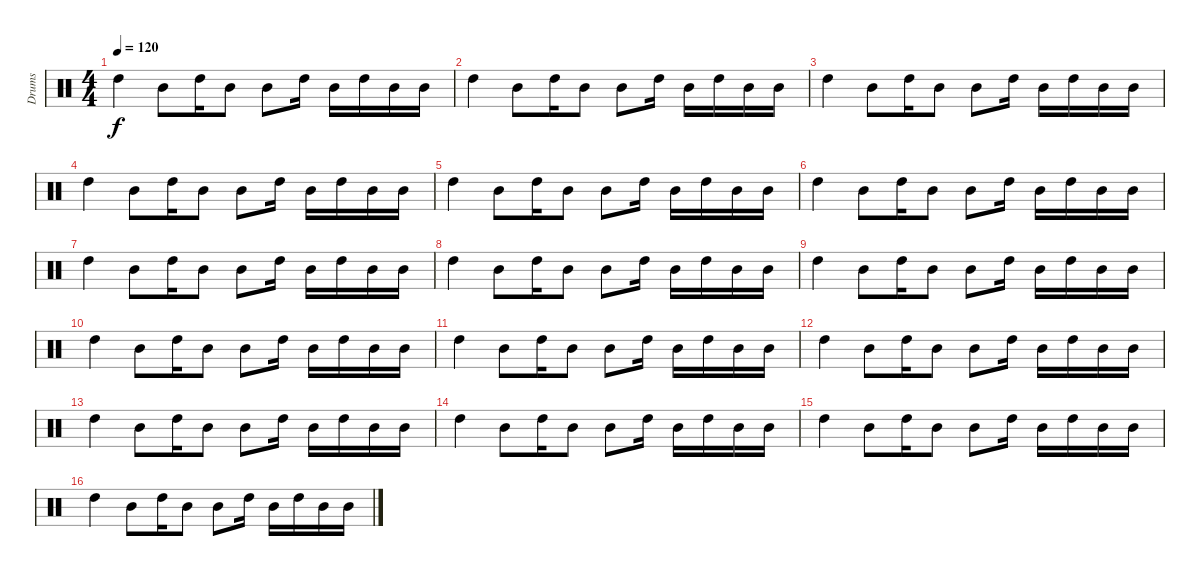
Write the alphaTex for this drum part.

\track ("Drums" "Drums") {instrument percussion}
\staff {score}
\articulation defaults
\ts (4 4)
\tempo 120
\clef neutral
\ks c "High Tom (hit)".4{dy f} "Mid Tom (hit)".8 "High Tom (hit)".16 "Mid Tom (hit)".8 "Mid Tom (hit)".8 "High Tom (hit)".16 "Mid Tom (hit)".16 "High Tom (hit)".16 "Mid Tom (hit)".16 "Mid Tom (hit)".16
|
"High Tom (hit)".4 "Mid Tom (hit)".8 "High Tom (hit)".16 "Mid Tom (hit)".8 "Mid Tom (hit)".8 "High Tom (hit)".16 "Mid Tom (hit)".16 "High Tom (hit)".16 "Mid Tom (hit)".16 "Mid Tom (hit)".16 |
"High Tom (hit)".4 "Mid Tom (hit)".8 "High Tom (hit)".16 "Mid Tom (hit)".8 "Mid Tom (hit)".8 "High Tom (hit)".16 "Mid Tom (hit)".16 "High Tom (hit)".16 "Mid Tom (hit)".16 "Mid Tom (hit)".16 |
"High Tom (hit)".4 "Mid Tom (hit)".8 "High Tom (hit)".16 "Mid Tom (hit)".8 "Mid Tom (hit)".8 "High Tom (hit)".16 "Mid Tom (hit)".16 "High Tom (hit)".16 "Mid Tom (hit)".16 "Mid Tom (hit)".16 |
"High Tom (hit)".4 "Mid Tom (hit)".8 "High Tom (hit)".16 "Mid Tom (hit)".8 "Mid Tom (hit)".8 "High Tom (hit)".16 "Mid Tom (hit)".16 "High Tom (hit)".16 "Mid Tom (hit)".16 "Mid Tom (hit)".16 |
"High Tom (hit)".4 "Mid Tom (hit)".8 "High Tom (hit)".16 "Mid Tom (hit)".8 "Mid Tom (hit)".8 "High Tom (hit)".16 "Mid Tom (hit)".16 "High Tom (hit)".16 "Mid Tom (hit)".16 "Mid Tom (hit)".16 |
"High Tom (hit)".4 "Mid Tom (hit)".8 "High Tom (hit)".16 "Mid Tom (hit)".8 "Mid Tom (hit)".8 "High Tom (hit)".16 "Mid Tom (hit)".16 "High Tom (hit)".16 "Mid Tom (hit)".16 "Mid Tom (hit)".16 |
"High Tom (hit)".4 "Mid Tom (hit)".8 "High Tom (hit)".16 "Mid Tom (hit)".8 "Mid Tom (hit)".8 "High Tom (hit)".16 "Mid Tom (hit)".16 "High Tom (hit)".16 "Mid Tom (hit)".16 "Mid Tom (hit)".16 |
"High Tom (hit)".4 "Mid Tom (hit)".8 "High Tom (hit)".16 "Mid Tom (hit)".8 "Mid Tom (hit)".8 "High Tom (hit)".16 "Mid Tom (hit)".16 "High Tom (hit)".16 "Mid Tom (hit)".16 "Mid Tom (hit)".16 |
"High Tom (hit)".4 "Mid Tom (hit)".8 "High Tom (hit)".16 "Mid Tom (hit)".8 "Mid Tom (hit)".8 "High Tom (hit)".16 "Mid Tom (hit)".16 "High Tom (hit)".16 "Mid Tom (hit)".16 "Mid Tom (hit)".16 |
"High Tom (hit)".4 "Mid Tom (hit)".8 "High Tom (hit)".16 "Mid Tom (hit)".8 "Mid Tom (hit)".8 "High Tom (hit)".16 "Mid Tom (hit)".16 "High Tom (hit)".16 "Mid Tom (hit)".16 "Mid Tom (hit)".16 |
"High Tom (hit)".4 "Mid Tom (hit)".8 "High Tom (hit)".16 "Mid Tom (hit)".8 "Mid Tom (hit)".8 "High Tom (hit)".16 "Mid Tom (hit)".16 "High Tom (hit)".16 "Mid Tom (hit)".16 "Mid Tom (hit)".16 |
"High Tom (hit)".4 "Mid Tom (hit)".8 "High Tom (hit)".16 "Mid Tom (hit)".8 "Mid Tom (hit)".8 "High Tom (hit)".16 "Mid Tom (hit)".16 "High Tom (hit)".16 "Mid Tom (hit)".16 "Mid Tom (hit)".16 |
"High Tom (hit)".4 "Mid Tom (hit)".8 "High Tom (hit)".16 "Mid Tom (hit)".8 "Mid Tom (hit)".8 "High Tom (hit)".16 "Mid Tom (hit)".16 "High Tom (hit)".16 "Mid Tom (hit)".16 "Mid Tom (hit)".16 |
"High Tom (hit)".4 "Mid Tom (hit)".8 "High Tom (hit)".16 "Mid Tom (hit)".8 "Mid Tom (hit)".8 "High Tom (hit)".16 "Mid Tom (hit)".16 "High Tom (hit)".16 "Mid Tom (hit)".16 "Mid Tom (hit)".16 |
"High Tom (hit)".4 "Mid Tom (hit)".8 "High Tom (hit)".16 "Mid Tom (hit)".8 "Mid Tom (hit)".8 "High Tom (hit)".16 "Mid Tom (hit)".16 "High Tom (hit)".16 "Mid Tom (hit)".16 "Mid Tom (hit)".16
